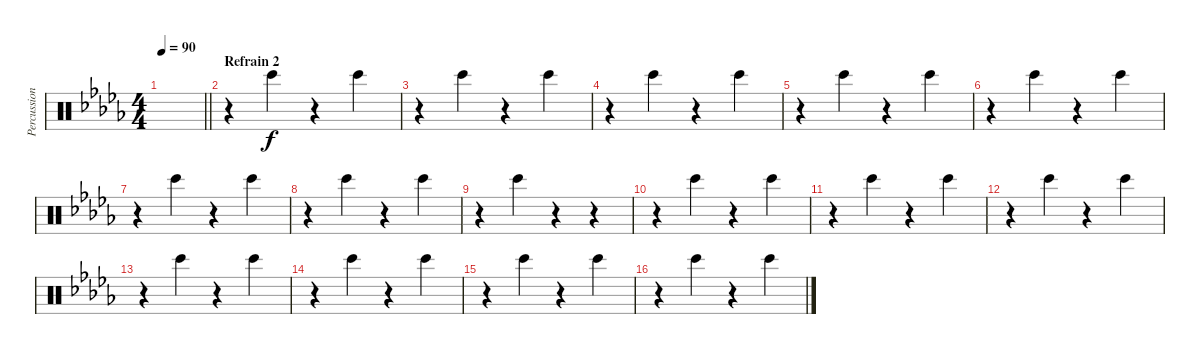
\track ("Percussions" "Percussion") {instrument percussion}
\staff {score}
\articulation defaults
\ts (4 4)
\tempo 90
\clef neutral
\barLineRight lightlight
\ks db
|
\section ("" "Refrain 2")
r.4 "Bongo High (hit)".4 r.4 "Bongo High (hit)".4 |
r.4 "Bongo High (hit)".4 r.4 "Bongo High (hit)".4 |
r.4 "Bongo High (hit)".4 r.4 "Bongo High (hit)".4 |
r.4 "Bongo High (hit)".4 r.4 "Bongo High (hit)".4 |
r.4 "Bongo High (hit)".4 r.4 "Bongo High (hit)".4 |
r.4 "Bongo High (hit)".4 r.4 "Bongo High (hit)".4 |
r.4 "Bongo High (hit)".4 r.4 "Bongo High (hit)".4 |
r.4 "Bongo High (hit)".4 r.4 r.4 |
r.4 "Bongo High (hit)".4 r.4 "Bongo High (hit)".4 |
r.4 "Bongo High (hit)".4 r.4 "Bongo High (hit)".4 |
r.4 "Bongo High (hit)".4 r.4 "Bongo High (hit)".4 |
r.4 "Bongo High (hit)".4 r.4 "Bongo High (hit)".4 |
r.4 "Bongo High (hit)".4 r.4 "Bongo High (hit)".4 |
r.4 "Bongo High (hit)".4 r.4 "Bongo High (hit)".4 |
r.4 "Bongo High (hit)".4 r.4 "Bongo High (hit)".4
